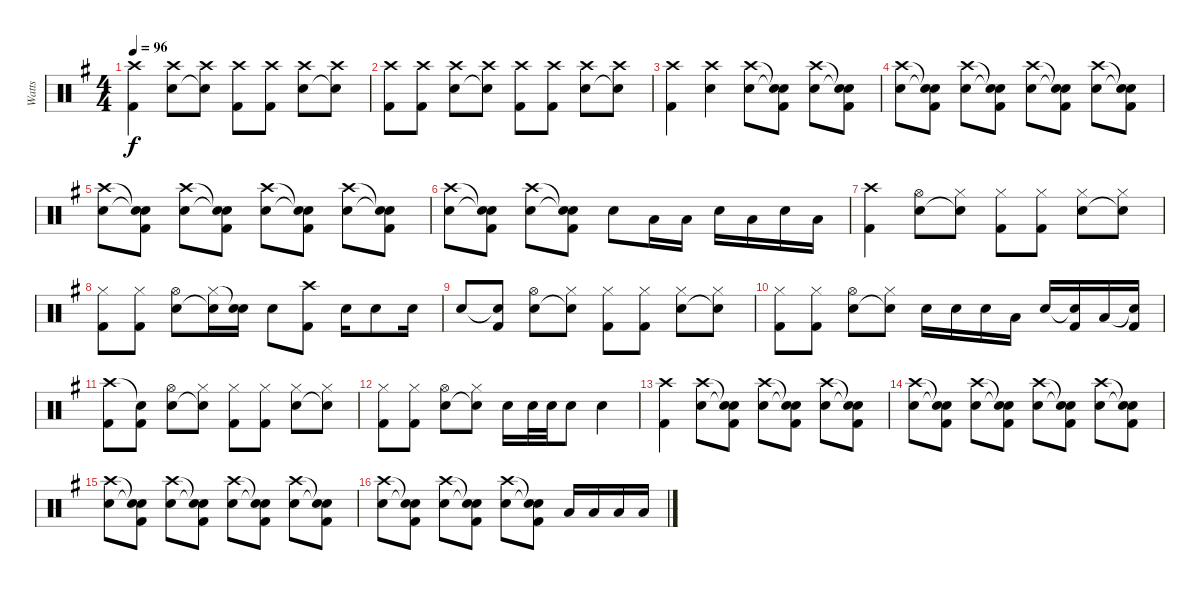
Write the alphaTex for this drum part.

\track ("Watts" "Watts") {instrument percussion}
\staff {score}
\articulation defaults
\ts (4 4)
\tempo 96
\clef neutral
\ks g
("Crash high (hit)" "Kick (hit) 2").4{dy f} ("Crash high (hit)" "Snare (hit) 2").8 ("Crash high (hit)" "Snare (hit)"{t}).8 ("Crash high (hit)" "Kick (hit) 2").8 ("Crash high (hit)" "Kick (hit) 2").8 ("Crash high (hit)" "Snare (hit) 2").8 ("Crash high (hit)" "Snare (hit)"{t}).8 |
("Crash high (hit)" "Kick (hit) 2").8 ("Crash high (hit)" "Kick (hit) 2").8 ("Crash high (hit)" "Snare (hit) 2").8 ("Crash high (hit)" "Snare (hit)"{t}).8 ("Crash high (hit)" "Kick (hit) 2").8 ("Crash high (hit)" "Kick (hit) 2").8 ("Crash high (hit)" "Snare (hit) 2").8 ("Crash high (hit)" "Snare (hit)"{t}).8 |
("Crash high (hit)" "Kick (hit) 2").4 ("Crash high (hit)" "Snare (hit) 2").4 ("Crash high (hit)" "Snare (hit) 2").8 ("Snare (hit)"{t} "Snare (hit)"{t} "Kick (hit) 2").8 ("Crash high (hit)" "Snare (hit) 2").8 ("Snare (hit)"{t} "Snare (hit)"{t} "Kick (hit) 2").8 |
("Crash high (hit)" "Snare (hit) 2").8 ("Snare (hit)"{t} "Snare (hit)"{t} "Kick (hit) 2").8 ("Crash high (hit)" "Snare (hit) 2").8 ("Snare (hit)"{t} "Snare (hit)"{t} "Kick (hit) 2").8 ("Crash high (hit)" "Snare (hit) 2").8 ("Snare (hit)"{t} "Snare (hit)"{t} "Kick (hit) 2").8 ("Crash high (hit)" "Snare (hit) 2").8 ("Snare (hit)"{t} "Snare (hit)"{t} "Kick (hit) 2").8 |
("Crash high (hit)" "Snare (hit) 2").8 ("Snare (hit)"{t} "Snare (hit)"{t} "Kick (hit) 2").8 ("Crash high (hit)" "Snare (hit) 2").8 ("Snare (hit)"{t} "Snare (hit)"{t} "Kick (hit) 2").8 ("Crash high (hit)" "Snare (hit) 2").8 ("Snare (hit)"{t} "Snare (hit)"{t} "Kick (hit) 2").8 ("Crash high (hit)" "Snare (hit) 2").8 ("Snare (hit)"{t} "Snare (hit)"{t} "Kick (hit) 2").8 |
("Crash high (hit)" "Snare (hit) 2").8 ("Snare (hit)"{t} "Snare (hit)"{t} "Kick (hit) 2").8 ("Crash high (hit)" "Snare (hit) 2").8 ("Snare (hit)"{t} "Snare (hit)"{t} "Kick (hit) 2").8 "Snare (hit) 2".8 "Low Tom (hit)".16 "Low Tom (hit)".16 "Snare (hit)"{x}.16 "Low Tom (hit)".16 "Snare (hit)"{x}.16 "Low Tom (hit)".16 |
("Crash high (hit)" "Kick (hit) 2").4 ("Hi-Hat (open)" "Snare (hit) 2").8 ("Hi-Hat (closed)" "Snare (hit)"{t}).8 ("Hi-Hat (closed)" "Kick (hit) 2").8 ("Hi-Hat (closed)" "Kick (hit) 2").8 ("Hi-Hat (closed)" "Snare (hit) 2").8 ("Hi-Hat (closed)" "Snare (hit)"{t}).8 |
("Hi-Hat (closed)" "Kick (hit) 2").8 ("Hi-Hat (closed)" "Kick (hit) 2").8 ("Hi-Hat (open)" "Snare (hit) 2").8 ("Hi-Hat (closed)" "Snare (hit)"{t}).16 ("Snare (hit)"{t} "Snare (hit) 2").16 "Snare (hit) 2".8 ("Crash high (hit)" "Kick (hit) 2").8 "Snare (hit) 2".16 "Snare (hit) 2".8 "Snare (hit) 2".16 |
"Snare (hit) 2".8 ("Snare (hit)"{t} "Kick (hit) 2").8 ("Hi-Hat (open)" "Snare (hit) 2").8 ("Hi-Hat (closed)" "Snare (hit)"{t}).8 ("Hi-Hat (closed)" "Kick (hit) 2").8 ("Hi-Hat (closed)" "Kick (hit) 2").8 ("Hi-Hat (closed)" "Snare (hit) 2").8 ("Hi-Hat (closed)" "Snare (hit)"{t}).8 |
("Hi-Hat (closed)" "Kick (hit) 2").8 ("Hi-Hat (closed)" "Kick (hit) 2").8 ("Hi-Hat (open)" "Snare (hit) 2").8 ("Hi-Hat (closed)" "Snare (hit)"{t}).8 "Snare (hit) 2".16 "Snare (hit) 2".16 "Snare (hit) 2".16 "Low Tom (hit)".16 "Snare (hit)"{x}.16 ("Snare (hit)"{t} "Kick (hit) 2").16 "Low Tom (hit)".16 ("Snare (hit)"{t} "Kick (hit) 2").16 |
("Crash high (hit)" "Kick (hit) 2").8 ("Snare (hit)"{t} "Kick (hit) 2").8 ("Hi-Hat (open)" "Snare (hit) 2").8 ("Hi-Hat (closed)" "Snare (hit)"{t}).8 ("Hi-Hat (closed)" "Kick (hit) 2").8 ("Hi-Hat (closed)" "Kick (hit) 2").8 ("Hi-Hat (closed)" "Snare (hit) 2").8 ("Hi-Hat (closed)" "Snare (hit)"{t}).8 |
("Hi-Hat (closed)" "Kick (hit) 2").8 ("Hi-Hat (closed)" "Kick (hit) 2").8 ("Hi-Hat (open)" "Snare (hit) 2").8 ("Hi-Hat (closed)" "Snare (hit)"{t}).8 "Snare (hit) 2".16 "Snare (hit) 2".32 "Snare (hit) 2".32 "Snare (hit) 2".8 "Snare (hit) 2".4 |
("Crash high (hit)" "Kick (hit) 2").4 ("Crash high (hit)" "Snare (hit) 2").8 ("Snare (hit)"{t} "Snare (hit)"{t} "Kick (hit) 2").8 ("Crash high (hit)" "Snare (hit) 2").8 ("Snare (hit)"{t} "Snare (hit)"{t} "Kick (hit) 2").8 ("Crash high (hit)" "Snare (hit) 2").8 ("Snare (hit)"{t} "Snare (hit)"{t} "Kick (hit) 2").8 |
("Crash high (hit)" "Snare (hit) 2").8 ("Snare (hit)"{t} "Snare (hit)"{t} "Kick (hit) 2").8 ("Crash high (hit)" "Snare (hit) 2").8 ("Snare (hit)"{t} "Snare (hit)"{t} "Kick (hit) 2").8 ("Crash high (hit)" "Snare (hit) 2").8 ("Snare (hit)"{t} "Snare (hit)"{t} "Kick (hit) 2").8 ("Crash high (hit)" "Snare (hit) 2").8 ("Snare (hit)"{t} "Snare (hit)"{t} "Kick (hit) 2").8 |
("Crash high (hit)" "Snare (hit) 2").8 ("Snare (hit)"{t} "Snare (hit)"{t} "Kick (hit) 2").8 ("Crash high (hit)" "Snare (hit) 2").8 ("Snare (hit)"{t} "Snare (hit)"{t} "Kick (hit) 2").8 ("Crash high (hit)" "Snare (hit) 2").8 ("Snare (hit)"{t} "Snare (hit)"{t} "Kick (hit) 2").8 ("Crash high (hit)" "Snare (hit) 2").8 ("Snare (hit)"{t} "Snare (hit)"{t} "Kick (hit) 2").8 |
("Crash high (hit)" "Snare (hit) 2").8 ("Snare (hit)"{t} "Snare (hit)"{t} "Kick (hit) 2").8 ("Crash high (hit)" "Snare (hit) 2").8 ("Snare (hit)"{t} "Snare (hit)"{t} "Kick (hit) 2").8 ("Crash high (hit)" "Snare (hit) 2").8 ("Snare (hit)"{t} "Snare (hit)"{t} "Kick (hit) 2").8 "Low Tom (hit)".16 "Low Tom (hit)".16 "Low Tom (hit)".16 "Low Tom (hit)".16
